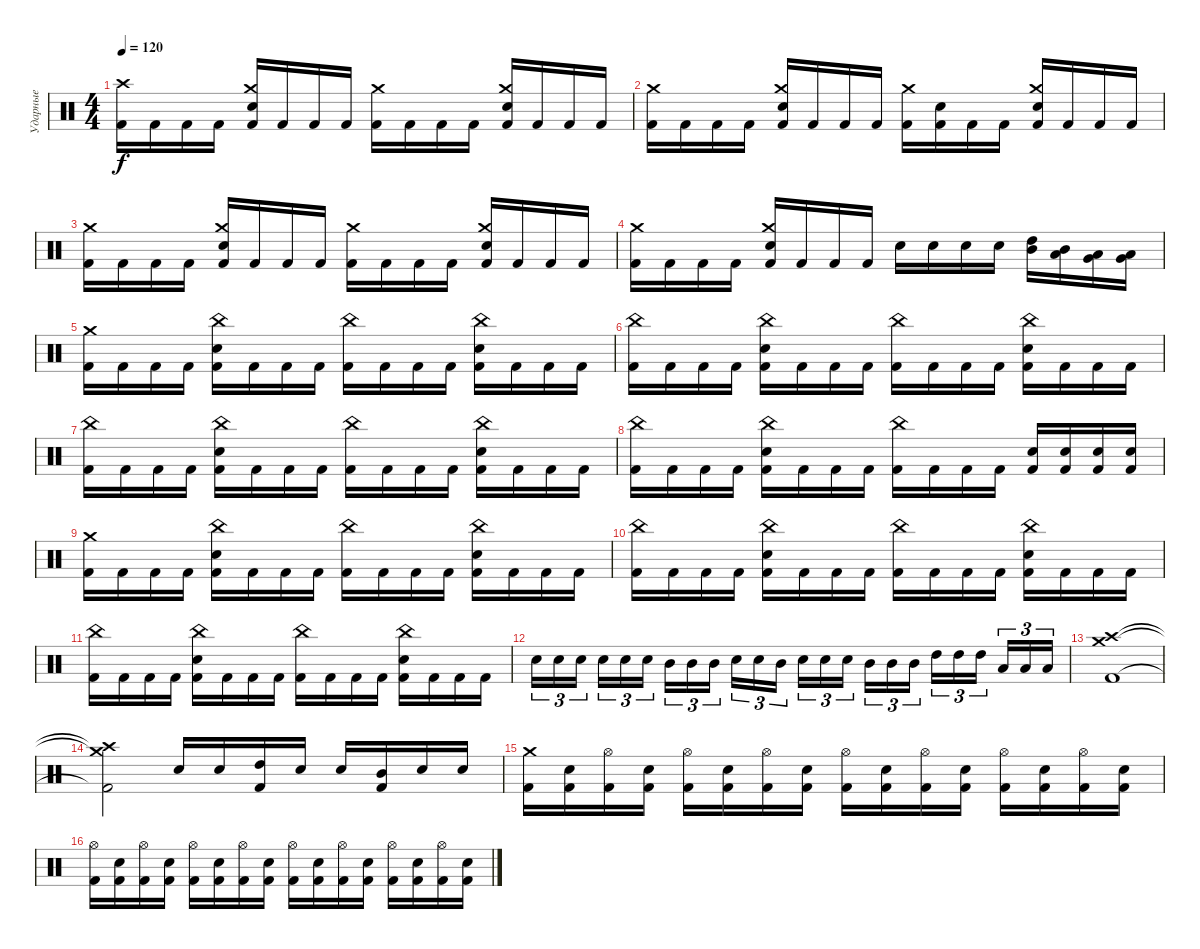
\track ("Ударные" "Ударные") {instrument percussion}
\staff {score}
\articulation defaults
\ts (4 4)
\tempo 120
\clef neutral
\ks c
("Crash high (hit)" "Kick (hit) 2").16{dy f} "Kick (hit) 2".16 "Kick (hit) 2".16 "Kick (hit) 2".16 ("Crash medium (hit)" "Electric Snare (hit)" "Kick (hit) 2").16 "Kick (hit) 2".16 "Kick (hit) 2".16 "Kick (hit) 2".16 ("Crash medium (hit)" "Kick (hit) 2").16 "Kick (hit) 2".16 "Kick (hit) 2".16 "Kick (hit) 2".16 ("Crash medium (hit)" "Electric Snare (hit)" "Kick (hit) 2").16 "Kick (hit) 2".16 "Kick (hit) 2".16 "Kick (hit) 2".16 |
("Crash medium (hit)" "Kick (hit) 2").16 "Kick (hit) 2".16 "Kick (hit) 2".16 "Kick (hit) 2".16 ("Crash medium (hit)" "Electric Snare (hit)" "Kick (hit) 2").16 "Kick (hit) 2".16 "Kick (hit) 2".16 "Kick (hit) 2".16 ("Crash medium (hit)" "Kick (hit) 2").16 ("Electric Snare (hit)" "Kick (hit) 2").16 "Kick (hit) 2".16 "Kick (hit) 2".16 ("Crash medium (hit)" "Electric Snare (hit)" "Kick (hit) 2").16 "Kick (hit) 2".16 "Kick (hit) 2".16 "Kick (hit) 2".16 |
("Crash medium (hit)" "Kick (hit) 2").16 "Kick (hit) 2".16 "Kick (hit) 2".16 "Kick (hit) 2".16 ("Crash medium (hit)" "Electric Snare (hit)" "Kick (hit) 2").16 "Kick (hit) 2".16 "Kick (hit) 2".16 "Kick (hit) 2".16 ("Crash medium (hit)" "Kick (hit) 2").16 "Kick (hit) 2".16 "Kick (hit) 2".16 "Kick (hit) 2".16 ("Crash medium (hit)" "Electric Snare (hit)" "Kick (hit) 2").16 "Kick (hit) 2".16 "Kick (hit) 2".16 "Kick (hit) 2".16 |
("Crash medium (hit)" "Kick (hit) 2").16 "Kick (hit) 2".16 "Kick (hit) 2".16 "Kick (hit) 2".16 ("Crash medium (hit)" "Electric Snare (hit)" "Kick (hit) 2").16 "Kick (hit) 2".16 "Kick (hit) 2".16 "Kick (hit) 2".16 "Electric Snare (hit)".16 "Electric Snare (hit)".16 "Electric Snare (hit)".16 "Electric Snare (hit)".16 ("High Tom (hit)" "Mid Tom (hit)").16 ("Mid Tom (hit)" "Low Tom (hit)").16 ("Low Tom (hit)" "Very Low Tom (hit)").16 ("Very Low Tom (hit)" "Low Floor Tom (hit)").16 |
("Crash medium (hit)" "Kick (hit) 2").16 "Kick (hit) 2".16 "Kick (hit) 2".16 "Kick (hit) 2".16 ("China (hit)" "Electric Snare (hit)" "Kick (hit) 2").16 "Kick (hit) 2".16 "Kick (hit) 2".16 "Kick (hit) 2".16 ("China (hit)" "Kick (hit) 2").16 "Kick (hit) 2".16 "Kick (hit) 2".16 "Kick (hit) 2".16 ("China (hit)" "Electric Snare (hit)" "Kick (hit) 2").16 "Kick (hit) 2".16 "Kick (hit) 2".16 "Kick (hit) 2".16 |
("China (hit)" "Kick (hit) 2").16 "Kick (hit) 2".16 "Kick (hit) 2".16 "Kick (hit) 2".16 ("China (hit)" "Electric Snare (hit)" "Kick (hit) 2").16 "Kick (hit) 2".16 "Kick (hit) 2".16 "Kick (hit) 2".16 ("China (hit)" "Kick (hit) 2").16 "Kick (hit) 2".16 "Kick (hit) 2".16 "Kick (hit) 2".16 ("China (hit)" "Electric Snare (hit)" "Kick (hit) 2").16 "Kick (hit) 2".16 "Kick (hit) 2".16 "Kick (hit) 2".16 |
("China (hit)" "Kick (hit) 2").16 "Kick (hit) 2".16 "Kick (hit) 2".16 "Kick (hit) 2".16 ("China (hit)" "Electric Snare (hit)" "Kick (hit) 2").16 "Kick (hit) 2".16 "Kick (hit) 2".16 "Kick (hit) 2".16 ("China (hit)" "Kick (hit) 2").16 "Kick (hit) 2".16 "Kick (hit) 2".16 "Kick (hit) 2".16 ("China (hit)" "Electric Snare (hit)" "Kick (hit) 2").16 "Kick (hit) 2".16 "Kick (hit) 2".16 "Kick (hit) 2".16 |
("China (hit)" "Kick (hit) 2").16 "Kick (hit) 2".16 "Kick (hit) 2".16 "Kick (hit) 2".16 ("China (hit)" "Electric Snare (hit)" "Kick (hit) 2").16 "Kick (hit) 2".16 "Kick (hit) 2".16 "Kick (hit) 2".16 ("China (hit)" "Kick (hit) 2").16 "Kick (hit) 2".16 "Kick (hit) 2".16 "Kick (hit) 2".16 ("Electric Snare (hit)" "Kick (hit) 2").16 ("Electric Snare (hit)" "Kick (hit) 2").16 ("Electric Snare (hit)" "Kick (hit) 2").16 ("Electric Snare (hit)" "Kick (hit) 2").16 |
("Crash medium (hit)" "Kick (hit) 2").16 "Kick (hit) 2".16 "Kick (hit) 2".16 "Kick (hit) 2".16 ("China (hit)" "Electric Snare (hit)" "Kick (hit) 2").16 "Kick (hit) 2".16 "Kick (hit) 2".16 "Kick (hit) 2".16 ("China (hit)" "Kick (hit) 2").16 "Kick (hit) 2".16 "Kick (hit) 2".16 "Kick (hit) 2".16 ("China (hit)" "Electric Snare (hit)" "Kick (hit) 2").16 "Kick (hit) 2".16 "Kick (hit) 2".16 "Kick (hit) 2".16 |
("China (hit)" "Kick (hit) 2").16 "Kick (hit) 2".16 "Kick (hit) 2".16 "Kick (hit) 2".16 ("China (hit)" "Electric Snare (hit)" "Kick (hit) 2").16 "Kick (hit) 2".16 "Kick (hit) 2".16 "Kick (hit) 2".16 ("China (hit)" "Kick (hit) 2").16 "Kick (hit) 2".16 "Kick (hit) 2".16 "Kick (hit) 2".16 ("China (hit)" "Electric Snare (hit)" "Kick (hit) 2").16 "Kick (hit) 2".16 "Kick (hit) 2".16 "Kick (hit) 2".16 |
("China (hit)" "Kick (hit) 2").16 "Kick (hit) 2".16 "Kick (hit) 2".16 "Kick (hit) 2".16 ("China (hit)" "Electric Snare (hit)" "Kick (hit) 2").16 "Kick (hit) 2".16 "Kick (hit) 2".16 "Kick (hit) 2".16 ("China (hit)" "Kick (hit) 2").16 "Kick (hit) 2".16 "Kick (hit) 2".16 "Kick (hit) 2".16 ("China (hit)" "Electric Snare (hit)" "Kick (hit) 2").16 "Kick (hit) 2".16 "Kick (hit) 2".16 "Kick (hit) 2".16 |
"Electric Snare (hit)".16{tu (3 2)} "Electric Snare (hit)".16{tu (3 2)} "Electric Snare (hit)".16{tu (3 2) beam splitsecondary} "Electric Snare (hit)".16{tu (3 2)} "Electric Snare (hit)".16{tu (3 2)} "Electric Snare (hit)".16{tu (3 2)} "Mid Tom (hit)".16{tu (3 2)} "Mid Tom (hit)".16{tu (3 2)} "Mid Tom (hit)".16{tu (3 2) beam splitsecondary} "Electric Snare (hit)".16{tu (3 2)} "Electric Snare (hit)".16{tu (3 2)} "Mid Tom (hit)".16{tu (3 2)} "Electric Snare (hit)".16{tu (3 2)} "Electric Snare (hit)".16{tu (3 2)} "Electric Snare (hit)".16{tu (3 2) beam splitsecondary} "Mid Tom (hit)".16{tu (3 2)} "Mid Tom (hit)".16{tu (3 2)} "Mid Tom (hit)".16{tu (3 2)} "High Tom (hit)".16{tu (3 2)} "High Tom (hit)".16{tu (3 2)} "High Tom (hit)".16{tu (3 2) beam splitsecondary} "Low Tom (hit)".16{tu (3 2)} "Low Tom (hit)".16{tu (3 2)} "Low Tom (hit)".16{tu (3 2)} |
("Crash medium (hit)" "Crash high (hit)" "Kick (hit) 2").1 |
("Crash medium (hit)"{t} "Crash high (hit)"{t} "Kick (hit) 2"{t}).2 "Electric Snare (hit)".16 "Electric Snare (hit)".16 ("High Tom (hit)" "Kick (hit) 2").16 "Electric Snare (hit)".16 "Electric Snare (hit)".16 ("Mid Tom (hit)" "Kick (hit) 2").16 "Electric Snare (hit)".16 "Electric Snare (hit)".16 |
("Crash medium (hit)" "Kick (hit) 2").16 ("Electric Snare (hit)" "Kick (hit) 2").16 ("Hi-Hat (open)" "Kick (hit) 2").16 ("Electric Snare (hit)" "Kick (hit) 2").16 ("Hi-Hat (open)" "Kick (hit) 2").16 ("Electric Snare (hit)" "Kick (hit) 2").16 ("Hi-Hat (open)" "Kick (hit) 2").16 ("Electric Snare (hit)" "Kick (hit) 2").16 ("Hi-Hat (open)" "Kick (hit) 2").16 ("Electric Snare (hit)" "Kick (hit) 2").16 ("Hi-Hat (open)" "Kick (hit) 2").16 ("Electric Snare (hit)" "Kick (hit) 2").16 ("Hi-Hat (open)" "Kick (hit) 2").16 ("Electric Snare (hit)" "Kick (hit) 2").16 ("Hi-Hat (open)" "Kick (hit) 2").16 ("Electric Snare (hit)" "Kick (hit) 2").16 |
("Hi-Hat (open)" "Kick (hit) 2").16 ("Electric Snare (hit)" "Kick (hit) 2").16 ("Hi-Hat (open)" "Kick (hit) 2").16 ("Electric Snare (hit)" "Kick (hit) 2").16 ("Hi-Hat (open)" "Kick (hit) 2").16 ("Electric Snare (hit)" "Kick (hit) 2").16 ("Hi-Hat (open)" "Kick (hit) 2").16 ("Electric Snare (hit)" "Kick (hit) 2").16 ("Hi-Hat (open)" "Kick (hit) 2").16 ("Electric Snare (hit)" "Kick (hit) 2").16 ("Hi-Hat (open)" "Kick (hit) 2").16 ("Electric Snare (hit)" "Kick (hit) 2").16 ("Hi-Hat (open)" "Kick (hit) 2").16 ("Electric Snare (hit)" "Kick (hit) 2").16 ("Hi-Hat (open)" "Kick (hit) 2").16 ("Electric Snare (hit)" "Kick (hit) 2").16
